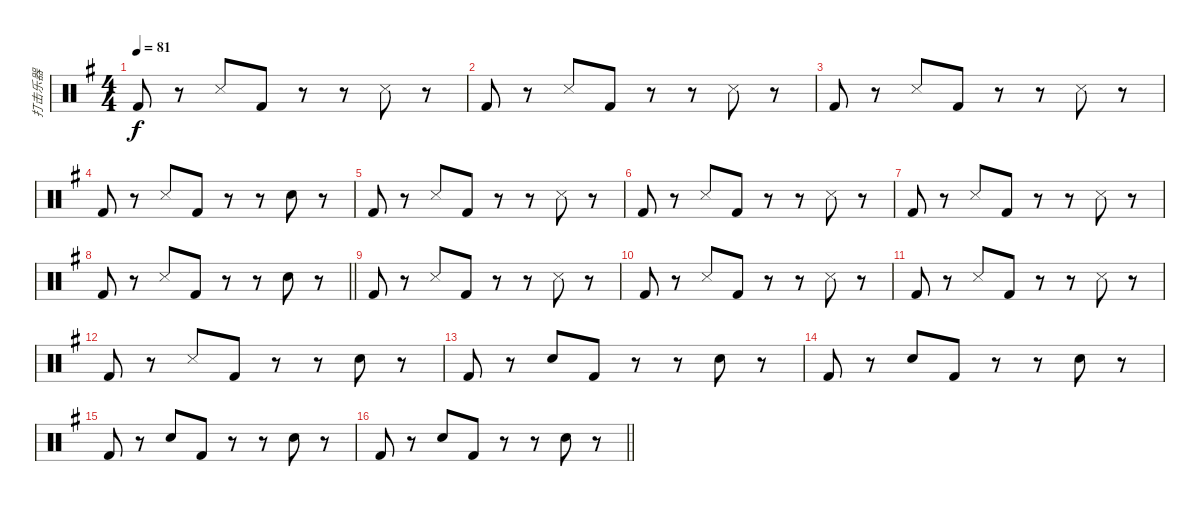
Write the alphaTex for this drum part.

\track ("打击乐器" "打击乐器") {instrument percussion}
\staff {score}
\articulation defaults
\ts (4 4)
\tempo 81
\clef neutral
\ks g "Kick (hit) 2".8{dy f}
r.8 "Metronome (hit)".8 "Kick (hit) 2".8 r.8 r.8 "Metronome (hit)".8 r.8 |
"Kick (hit) 2".8 r.8 "Metronome (hit)".8 "Kick (hit) 2".8 r.8 r.8 "Metronome (hit)".8 r.8 |
"Kick (hit) 2".8 r.8 "Metronome (hit)".8 "Kick (hit) 2".8 r.8 r.8 "Metronome (hit)".8 r.8 |
"Kick (hit) 2".8 r.8 "Metronome (hit)".8 "Kick (hit) 2".8 r.8 r.8 "Electric Snare (hit)".8 r.8 |
"Kick (hit) 2".8 r.8 "Metronome (hit)".8 "Kick (hit) 2".8 r.8 r.8 "Metronome (hit)".8 r.8 |
"Kick (hit) 2".8 r.8 "Metronome (hit)".8 "Kick (hit) 2".8 r.8 r.8 "Metronome (hit)".8 r.8 |
"Kick (hit) 2".8 r.8 "Metronome (hit)".8 "Kick (hit) 2".8 r.8 r.8 "Metronome (hit)".8 r.8 |
\barLineRight lightlight "Kick (hit) 2".8
r.8 "Metronome (hit)".8 "Kick (hit) 2".8 r.8 r.8 "Electric Snare (hit)".8 r.8 |
"Kick (hit) 2".8 r.8 "Metronome (hit)".8 "Kick (hit) 2".8 r.8 r.8 "Metronome (hit)".8 r.8 |
"Kick (hit) 2".8 r.8 "Metronome (hit)".8 "Kick (hit) 2".8 r.8 r.8 "Metronome (hit)".8 r.8 |
"Kick (hit) 2".8 r.8 "Metronome (hit)".8 "Kick (hit) 2".8 r.8 r.8 "Metronome (hit)".8 r.8 |
"Kick (hit) 2".8 r.8 "Metronome (hit)".8 "Kick (hit) 2".8 r.8 r.8 "Electric Snare (hit)".8 r.8 |
"Kick (hit) 2".8 r.8 "Electric Snare (hit)".8 "Kick (hit) 2".8 r.8 r.8 "Electric Snare (hit)".8 r.8 |
"Kick (hit) 2".8 r.8 "Electric Snare (hit)".8 "Kick (hit) 2".8 r.8 r.8 "Electric Snare (hit)".8 r.8 |
"Kick (hit) 2".8 r.8 "Electric Snare (hit)".8 "Kick (hit) 2".8 r.8 r.8 "Electric Snare (hit)".8 r.8 |
\barLineRight lightlight "Kick (hit) 2".8
r.8 "Electric Snare (hit)".8 "Kick (hit) 2".8 r.8 r.8 "Electric Snare (hit)".8 r.8
